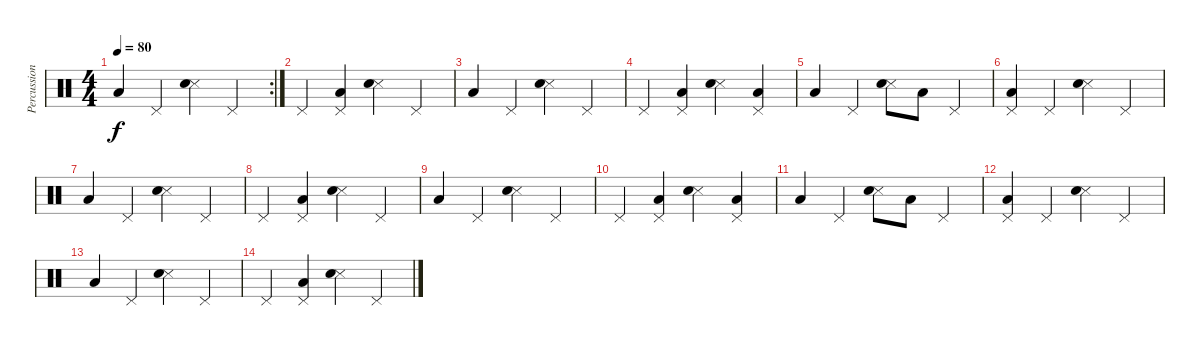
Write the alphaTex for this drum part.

\track ("Percussions" "Percussion") {instrument percussion}
\staff {score}
\articulation defaults
\rc 2
\ts (4 4)
\tempo 80
\clef neutral
\ks c "Low Floor Tom (hit)".4{dy f} "Pedal Hi-Hat (hit)".4
("Snare (side stick) 3" "Electric Snare (hit)").4 "Pedal Hi-Hat (hit)".4 |
"Pedal Hi-Hat (hit)".4 ("Pedal Hi-Hat (hit)" "Low Floor Tom (hit)").4 ("Snare (side stick) 3" "Electric Snare (hit)").4 "Pedal Hi-Hat (hit)".4 |
"Low Floor Tom (hit)".4 "Pedal Hi-Hat (hit)".4 ("Snare (side stick) 3" "Electric Snare (hit)").4 "Pedal Hi-Hat (hit)".4 |
"Pedal Hi-Hat (hit)".4 ("Pedal Hi-Hat (hit)" "Low Floor Tom (hit)").4 ("Snare (side stick) 3" "Electric Snare (hit)").4 ("Pedal Hi-Hat (hit)" "Low Floor Tom (hit)").4 |
"Low Floor Tom (hit)".4 "Pedal Hi-Hat (hit)".4 ("Snare (side stick) 3" "Electric Snare (hit)").8 "Low Floor Tom (hit)".8 "Pedal Hi-Hat (hit)".4 |
("Pedal Hi-Hat (hit)" "Low Floor Tom (hit)").4 "Pedal Hi-Hat (hit)".4 ("Snare (side stick) 3" "Electric Snare (hit)").4 "Pedal Hi-Hat (hit)".4 |
"Low Floor Tom (hit)".4 "Pedal Hi-Hat (hit)".4 ("Snare (side stick) 3" "Electric Snare (hit)").4 "Pedal Hi-Hat (hit)".4 |
"Pedal Hi-Hat (hit)".4 ("Pedal Hi-Hat (hit)" "Low Floor Tom (hit)").4 ("Snare (side stick) 3" "Electric Snare (hit)").4 "Pedal Hi-Hat (hit)".4 |
"Low Floor Tom (hit)".4 "Pedal Hi-Hat (hit)".4 ("Snare (side stick) 3" "Electric Snare (hit)").4 "Pedal Hi-Hat (hit)".4 |
"Pedal Hi-Hat (hit)".4 ("Pedal Hi-Hat (hit)" "Low Floor Tom (hit)").4 ("Snare (side stick) 3" "Electric Snare (hit)").4 ("Pedal Hi-Hat (hit)" "Low Floor Tom (hit)").4 |
"Low Floor Tom (hit)".4 "Pedal Hi-Hat (hit)".4 ("Snare (side stick) 3" "Electric Snare (hit)").8 "Low Floor Tom (hit)".8 "Pedal Hi-Hat (hit)".4 |
("Pedal Hi-Hat (hit)" "Low Floor Tom (hit)").4 "Pedal Hi-Hat (hit)".4 ("Snare (side stick) 3" "Electric Snare (hit)").4 "Pedal Hi-Hat (hit)".4 |
"Low Floor Tom (hit)".4 "Pedal Hi-Hat (hit)".4 ("Snare (side stick) 3" "Electric Snare (hit)").4 "Pedal Hi-Hat (hit)".4 |
"Pedal Hi-Hat (hit)".4 ("Pedal Hi-Hat (hit)" "Low Floor Tom (hit)").4 ("Snare (side stick) 3" "Electric Snare (hit)").4 "Pedal Hi-Hat (hit)".4
